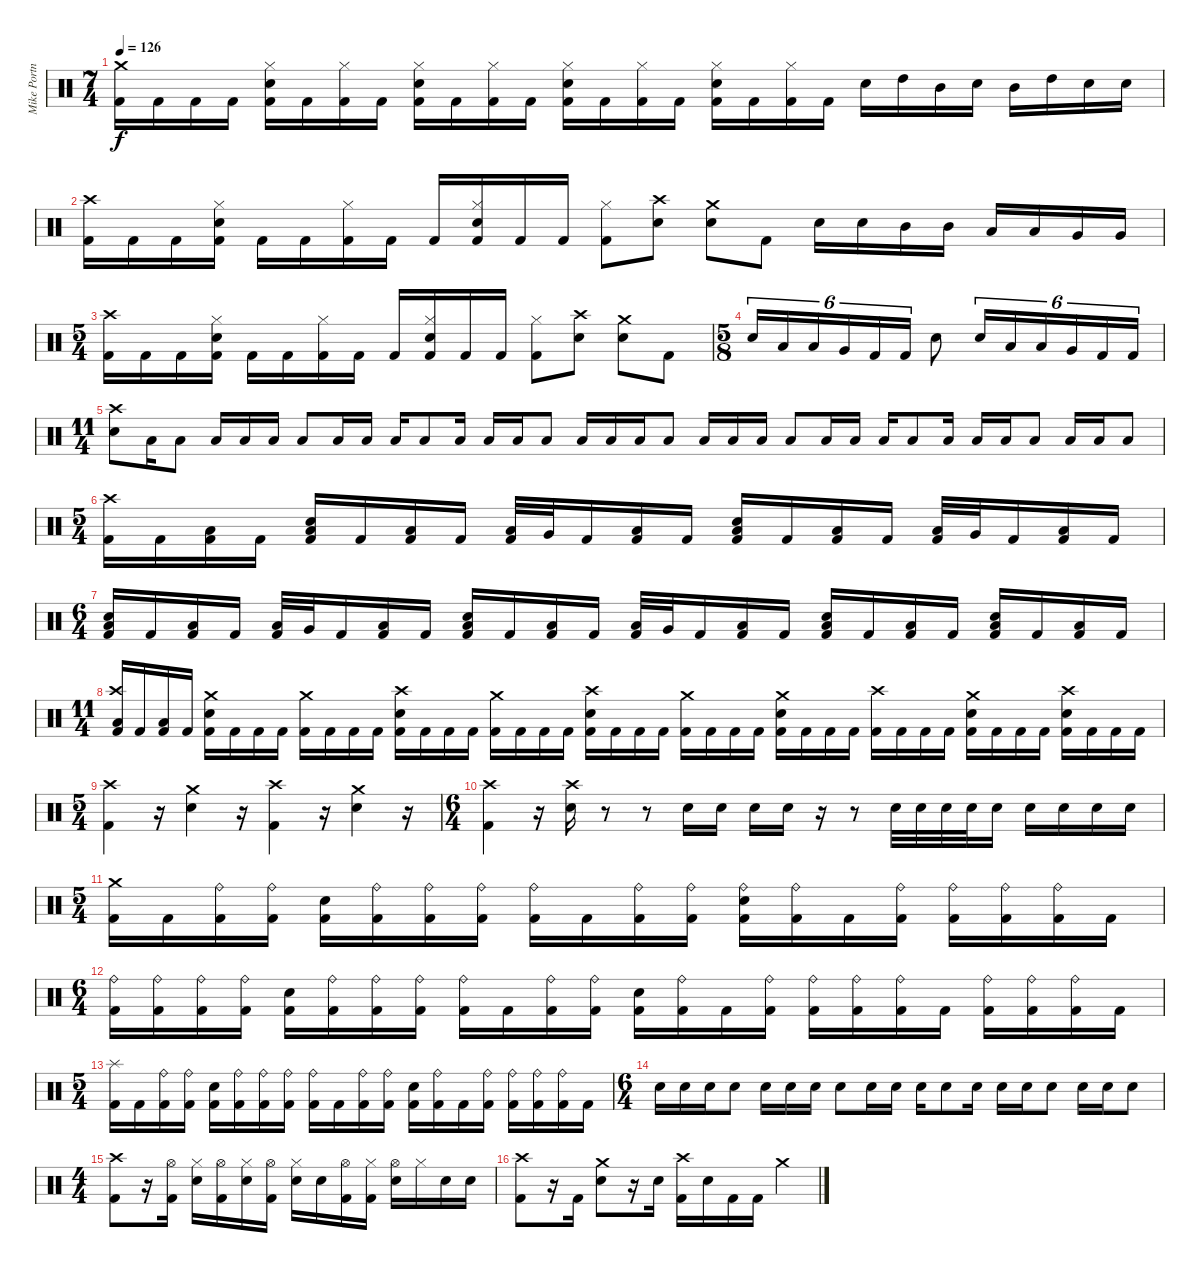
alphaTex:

\track ("Mike Portnoy" "Mike Portn") {instrument percussion}
\staff {score}
\articulation defaults
\ts (7 4)
\tempo 126
\clef neutral
\ks c
("Crash medium (hit)" "Kick (hit) 2").16{dy f} "Kick (hit) 2".16 "Kick (hit) 2".16 "Kick (hit) 2".16 ("Hi-Hat (closed)" "Snare (hit) 2" "Kick (hit) 2").16 "Kick (hit) 2".16 ("Hi-Hat (closed)" "Kick (hit) 2").16 "Kick (hit) 2".16 ("Hi-Hat (closed)" "Snare (hit) 2" "Kick (hit) 2").16 "Kick (hit) 2".16 ("Hi-Hat (closed)" "Kick (hit) 2").16 "Kick (hit) 2".16 ("Hi-Hat (closed)" "Snare (hit) 2" "Kick (hit) 2").16 "Kick (hit) 2".16 ("Hi-Hat (closed)" "Kick (hit) 2").16 "Kick (hit) 2".16 ("Hi-Hat (closed)" "Snare (hit) 2" "Kick (hit) 2").16 "Kick (hit) 2".16 ("Hi-Hat (closed)" "Kick (hit) 2").16 "Kick (hit) 2".16 "Snare (hit) 2".16 "High Tom (hit)".16 "Mid Tom (hit)".16 "Snare (hit) 2".16 "Mid Tom (hit)".16 "High Tom (hit)".16 "Snare (hit) 2".16 "Snare (hit) 2".16 |
("Crash high (hit)" "Kick (hit) 2").16 "Kick (hit) 2".16 "Kick (hit) 2".16 ("Hi-Hat (closed)" "Snare (hit) 2" "Kick (hit) 2").16 "Kick (hit) 2".16 "Kick (hit) 2".16 ("Hi-Hat (closed)" "Kick (hit) 2").16 "Kick (hit) 2".16 "Kick (hit) 2".16 ("Hi-Hat (closed)" "Snare (hit) 2" "Kick (hit) 2").16 "Kick (hit) 2".16 "Kick (hit) 2".16 ("Hi-Hat (closed)" "Kick (hit) 2").8 ("Crash high (hit)" "Snare (hit) 2").8 ("Crash medium (hit)" "Snare (hit) 2").8 "Kick (hit) 2".8 "Snare (hit) 2".16 "Snare (hit) 2".16 "Mid Tom (hit)".16 "Mid Tom (hit)".16 "Low Tom (hit)".16 "Low Tom (hit)".16 "Very Low Tom (hit)".16 "Very Low Tom (hit)".16 |
\ts (5 4)
("Crash high (hit)" "Kick (hit) 2").16 "Kick (hit) 2".16 "Kick (hit) 2".16 ("Hi-Hat (closed)" "Snare (hit) 2" "Kick (hit) 2").16 "Kick (hit) 2".16 "Kick (hit) 2".16 ("Hi-Hat (closed)" "Kick (hit) 2").16 "Kick (hit) 2".16 "Kick (hit) 2".16 ("Hi-Hat (closed)" "Snare (hit) 2" "Kick (hit) 2").16 "Kick (hit) 2".16 "Kick (hit) 2".16 ("Hi-Hat (closed)" "Kick (hit) 2").8 ("Crash high (hit)" "Snare (hit) 2").8 ("Crash medium (hit)" "Snare (hit) 2").8 "Kick (hit) 2".8 |
\ts (5 8)
"Snare (hit) 2".16{tu (6 4)} "Low Tom (hit)".16{tu (6 4)} "Low Floor Tom (hit)".16{tu (6 4)} "Very Low Tom (hit)".16{tu (6 4)} "Kick (hit) 2".16{tu (6 4)} "Kick (hit) 2".16{tu (6 4)} "Snare (hit) 2".8 "Snare (hit) 2".16{tu (6 4)} "Low Tom (hit)".16{tu (6 4)} "Low Floor Tom (hit)".16{tu (6 4)} "Very Low Tom (hit)".16{tu (6 4)} "Kick (hit) 2".16{tu (6 4)} "Kick (hit) 2".16{tu (6 4)} |
\ts (11 4)
("Crash high (hit)" "Snare (hit) 2").8 "Low Floor Tom (hit)".16 "Low Floor Tom (hit)".8 "Low Floor Tom (hit)".16 "Low Floor Tom (hit)".16 "Low Floor Tom (hit)".16 "Low Floor Tom (hit)".8 "Low Floor Tom (hit)".16 "Low Floor Tom (hit)".16 "Low Floor Tom (hit)".16 "Low Floor Tom (hit)".8 "Low Floor Tom (hit)".16 "Low Floor Tom (hit)".16 "Low Floor Tom (hit)".16 "Low Floor Tom (hit)".8 "Low Floor Tom (hit)".16 "Low Floor Tom (hit)".16 "Low Floor Tom (hit)".16 "Low Floor Tom (hit)".8 "Low Floor Tom (hit)".16 "Low Floor Tom (hit)".16 "Low Floor Tom (hit)".16 "Low Floor Tom (hit)".8 "Low Floor Tom (hit)".16 "Low Floor Tom (hit)".16 "Low Floor Tom (hit)".16 "Low Floor Tom (hit)".8 "Low Floor Tom (hit)".16 "Low Floor Tom (hit)".16 "Low Floor Tom (hit)".16 "Low Floor Tom (hit)".8 "Low Floor Tom (hit)".16 "Low Floor Tom (hit)".16 "Low Floor Tom (hit)".8 |
\ts (5 4)
("Crash high (hit)" "Kick (hit) 2").16 "Kick (hit) 2".16 ("Low Floor Tom (hit)" "Kick (hit) 2").16 "Kick (hit) 2".16 ("Snare (hit) 2" "Low Floor Tom (hit)" "Kick (hit) 2").16 "Kick (hit) 2".16 ("Low Floor Tom (hit)" "Kick (hit) 2").16 "Kick (hit) 2".16 ("Low Floor Tom (hit)" "Kick (hit) 2").32 "Very Low Tom (hit)".32 "Kick (hit) 2".16 ("Low Floor Tom (hit)" "Kick (hit) 2").16 "Kick (hit) 2".16 ("Snare (hit) 2" "Low Floor Tom (hit)" "Kick (hit) 2").16 "Kick (hit) 2".16 ("Low Floor Tom (hit)" "Kick (hit) 2").16 "Kick (hit) 2".16 ("Low Floor Tom (hit)" "Kick (hit) 2").32 "Very Low Tom (hit)".32 "Kick (hit) 2".16 ("Low Floor Tom (hit)" "Kick (hit) 2").16 "Kick (hit) 2".16 |
\ts (6 4)
("Snare (hit) 2" "Low Floor Tom (hit)" "Kick (hit) 2").16 "Kick (hit) 2".16 ("Low Floor Tom (hit)" "Kick (hit) 2").16 "Kick (hit) 2".16 ("Low Floor Tom (hit)" "Kick (hit) 2").32 "Very Low Tom (hit)".32 "Kick (hit) 2".16 ("Low Floor Tom (hit)" "Kick (hit) 2").16 "Kick (hit) 2".16 ("Snare (hit) 2" "Low Floor Tom (hit)" "Kick (hit) 2").16 "Kick (hit) 2".16 ("Low Floor Tom (hit)" "Kick (hit) 2").16 "Kick (hit) 2".16 ("Low Floor Tom (hit)" "Kick (hit) 2").32 "Very Low Tom (hit)".32 "Kick (hit) 2".16 ("Low Floor Tom (hit)" "Kick (hit) 2").16 "Kick (hit) 2".16 ("Snare (hit) 2" "Low Floor Tom (hit)" "Kick (hit) 2").16 "Kick (hit) 2".16 ("Low Floor Tom (hit)" "Kick (hit) 2").16 "Kick (hit) 2".16 ("Snare (hit) 2" "Low Floor Tom (hit)" "Kick (hit) 2").16 "Kick (hit) 2".16 ("Low Floor Tom (hit)" "Kick (hit) 2").16 "Kick (hit) 2".16 |
\ts (11 4)
("Crash high (hit)" "Low Floor Tom (hit)" "Kick (hit) 2").16 "Kick (hit) 2".16 ("Low Floor Tom (hit)" "Kick (hit) 2").16 "Kick (hit) 2".16 ("Crash medium (hit)" "Snare (hit) 2" "Kick (hit) 2").16 "Kick (hit) 2".16 "Kick (hit) 2".16 "Kick (hit) 2".16 ("Crash medium (hit)" "Kick (hit) 2").16 "Kick (hit) 2".16 "Kick (hit) 2".16 "Kick (hit) 2".16 ("Crash high (hit)" "Snare (hit) 2" "Kick (hit) 2").16 "Kick (hit) 2".16 "Kick (hit) 2".16 "Kick (hit) 2".16 ("Crash medium (hit)" "Kick (hit) 2").16 "Kick (hit) 2".16 "Kick (hit) 2".16 "Kick (hit) 2".16 ("Crash high (hit)" "Snare (hit) 2" "Kick (hit) 2").16 "Kick (hit) 2".16 "Kick (hit) 2".16 "Kick (hit) 2".16 ("Crash medium (hit)" "Kick (hit) 2").16 "Kick (hit) 2".16 "Kick (hit) 2".16 "Kick (hit) 2".16 ("Crash medium (hit)" "Snare (hit) 2" "Kick (hit) 2").16 "Kick (hit) 2".16 "Kick (hit) 2".16 "Kick (hit) 2".16 ("Crash high (hit)" "Kick (hit) 2").16 "Kick (hit) 2".16 "Kick (hit) 2".16 "Kick (hit) 2".16 ("Crash medium (hit)" "Snare (hit) 2" "Kick (hit) 2").16 "Kick (hit) 2".16 "Kick (hit) 2".16 "Kick (hit) 2".16 ("Crash high (hit)" "Snare (hit) 2" "Kick (hit) 2").16 "Kick (hit) 2".16 "Kick (hit) 2".16 "Kick (hit) 2".16 |
\ts (5 4)
("Crash high (hit)" "Kick (hit) 2").4 r.16 ("Crash medium (hit)" "Snare (hit) 2").4 r.16 ("Crash high (hit)" "Kick (hit) 2").4 r.16 ("Crash medium (hit)" "Snare (hit) 2").4 r.16 |
\ts (6 4)
("Crash high (hit)" "Kick (hit) 2").4 r.16 ("Crash high (hit)" "Snare (hit) 2").16 r.8 r.8 "Snare (hit) 2".16 "Snare (hit) 2".16 "Snare (hit) 2".16 "Snare (hit) 2".16 r.16 r.8 "Snare (hit) 2".32 "Snare (hit) 2".32 "Snare (hit) 2".32 "Snare (hit) 2".32 "Snare (hit) 2".16 "Snare (hit) 2".16 "Snare (hit) 2".16 "Snare (hit) 2".16 "Snare (hit) 2".16 |
\ts (5 4)
("Crash medium (hit)" "Kick (hit) 2").16 "Kick (hit) 2".16 ("Ride (bell)" "Kick (hit) 2").16 ("Ride (bell)" "Kick (hit) 2").16 ("Snare (hit) 2" "Kick (hit) 2").16 ("Ride (bell)" "Kick (hit) 2").16 ("Ride (bell)" "Kick (hit) 2").16 ("Ride (bell)" "Kick (hit) 2").16 ("Ride (bell)" "Kick (hit) 2").16 "Kick (hit) 2".16 ("Ride (bell)" "Kick (hit) 2").16 ("Ride (bell)" "Kick (hit) 2").16 ("Ride (bell)" "Snare (hit) 2" "Kick (hit) 2").16 ("Ride (bell)" "Kick (hit) 2").16 "Kick (hit) 2".16 ("Ride (bell)" "Kick (hit) 2").16 ("Ride (bell)" "Kick (hit) 2").16 ("Ride (bell)" "Kick (hit) 2").16 ("Ride (bell)" "Kick (hit) 2").16 "Kick (hit) 2".16 |
\ts (6 4)
("Ride (bell)" "Kick (hit) 2").16 ("Ride (bell)" "Kick (hit) 2").16 ("Ride (bell)" "Kick (hit) 2").16 ("Ride (bell)" "Kick (hit) 2").16 ("Snare (hit) 2" "Kick (hit) 2").16 ("Ride (bell)" "Kick (hit) 2").16 ("Ride (bell)" "Kick (hit) 2").16 ("Ride (bell)" "Kick (hit) 2").16 ("Ride (bell)" "Kick (hit) 2").16 "Kick (hit) 2".16 ("Ride (bell)" "Kick (hit) 2").16 ("Ride (bell)" "Kick (hit) 2").16 ("Snare (hit) 2" "Kick (hit) 2").16 ("Ride (bell)" "Kick (hit) 2").16 "Kick (hit) 2".16 ("Ride (bell)" "Kick (hit) 2").16 ("Ride (bell)" "Kick (hit) 2").16 ("Ride (bell)" "Kick (hit) 2").16 ("Ride (bell)" "Kick (hit) 2").16 "Kick (hit) 2".16 ("Ride (bell)" "Kick (hit) 2").16 ("Ride (bell)" "Kick (hit) 2").16 ("Ride (bell)" "Kick (hit) 2").16 "Kick (hit) 2".16 |
\ts (5 4)
("Splash (hit)" "Kick (hit) 2").16 "Kick (hit) 2".16 ("Ride (bell)" "Kick (hit) 2").16 ("Ride (bell)" "Kick (hit) 2").16 ("Snare (hit) 2" "Kick (hit) 2").16 ("Ride (bell)" "Kick (hit) 2").16 ("Ride (bell)" "Kick (hit) 2").16 ("Ride (bell)" "Kick (hit) 2").16 ("Ride (bell)" "Kick (hit) 2").16 "Kick (hit) 2".16 ("Ride (bell)" "Kick (hit) 2").16 ("Ride (bell)" "Kick (hit) 2").16 ("Snare (hit) 2" "Kick (hit) 2").16 ("Ride (bell)" "Kick (hit) 2").16 "Kick (hit) 2".16 ("Ride (bell)" "Kick (hit) 2").16 ("Ride (bell)" "Kick (hit) 2").16 ("Ride (bell)" "Kick (hit) 2").16 ("Ride (bell)" "Kick (hit) 2").16 "Kick (hit) 2".16 |
\ts (6 4)
"Snare (hit) 2".16 "Snare (hit) 2".16 "Snare (hit) 2".16 "Snare (hit) 2".8 "Snare (hit) 2".16 "Snare (hit) 2".16 "Snare (hit) 2".16 "Snare (hit) 2".8 "Snare (hit) 2".16 "Snare (hit) 2".16 "Snare (hit) 2".16 "Snare (hit) 2".8 "Snare (hit) 2".16 "Snare (hit) 2".16 "Snare (hit) 2".16 "Snare (hit) 2".8 "Snare (hit) 2".16 "Snare (hit) 2".16 "Snare (hit) 2".8 |
\ts (4 4)
("Crash high (hit)" "Kick (hit) 2").8 r.16 ("Hi-Hat (open)" "Kick (hit) 2").16 ("Hi-Hat (closed)" "Snare (hit) 2").16 ("Hi-Hat (open)" "Kick (hit) 2").16 ("Hi-Hat (closed)" "Snare (hit) 2").16 ("Hi-Hat (open)" "Kick (hit) 2").16 ("Hi-Hat (closed)" "Snare (hit) 2").16 "Snare (hit) 2".16 ("Hi-Hat (open)" "Kick (hit) 2").16 ("Hi-Hat (closed)" "Kick (hit) 2").16 ("Hi-Hat (open)" "Snare (hit) 2").16 "Hi-Hat (closed)".16 "Snare (hit) 2".16 "Snare (hit) 2".16 |
("Crash high (hit)" "Kick (hit) 2").8 r.16 "Kick (hit) 2".16 ("Crash medium (hit)" "Snare (hit) 2").8 r.16 "Snare (hit) 2".16 ("Crash high (hit)" "Kick (hit) 2").16 "Snare (hit) 2".16 "Kick (hit) 2".16 "Kick (hit) 2".16 "Crash medium (hit)".4
